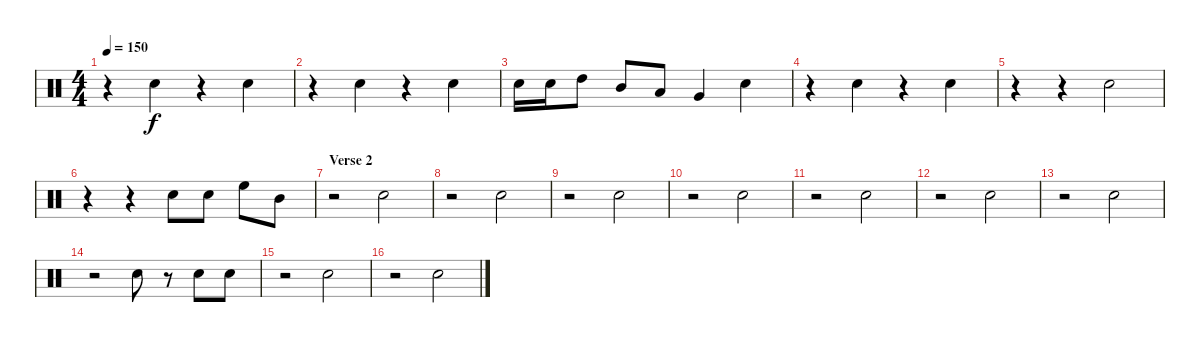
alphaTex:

\track "" {instrument percussion}
\staff {score}
\articulation defaults
\ts (4 4)
\tempo 150
\clef neutral
\ks c
r.4{dy f} "Electric Snare (hit)".4 r.4 "Electric Snare (hit)".4 |
r.4 "Electric Snare (hit)".4 r.4 "Electric Snare (hit)".4 |
"Electric Snare (hit)".16 "Electric Snare (hit)".16 "High Tom (hit)".8 "Mid Tom (hit)".8 "Low Tom (hit)".8 "Very Low Tom (hit)".4 "Electric Snare (hit)".4 |
r.4 "Electric Snare (hit)".4 r.4 "Electric Snare (hit)".4 |
r.4 r.4 "Electric Snare (hit)".2 |
r.4 r.4 "Electric Snare (hit)".8 "Electric Snare (hit)".8 "High Floor Tom (hit)".8 "Mid Tom (hit)".8 |
\section ("" "Verse 2")
r.2 "Electric Snare (hit)".2 |
r.2 "Electric Snare (hit)".2 |
r.2 "Electric Snare (hit)".2 |
r.2 "Electric Snare (hit)".2 |
r.2 "Electric Snare (hit)".2 |
r.2 "Electric Snare (hit)".2 |
r.2 "Electric Snare (hit)".2 |
r.2 "Electric Snare (hit)".8 r.8 "Electric Snare (hit)".8 "Electric Snare (hit)".8 |
r.2 "Electric Snare (hit)".2 |
r.2 "Electric Snare (hit)".2
